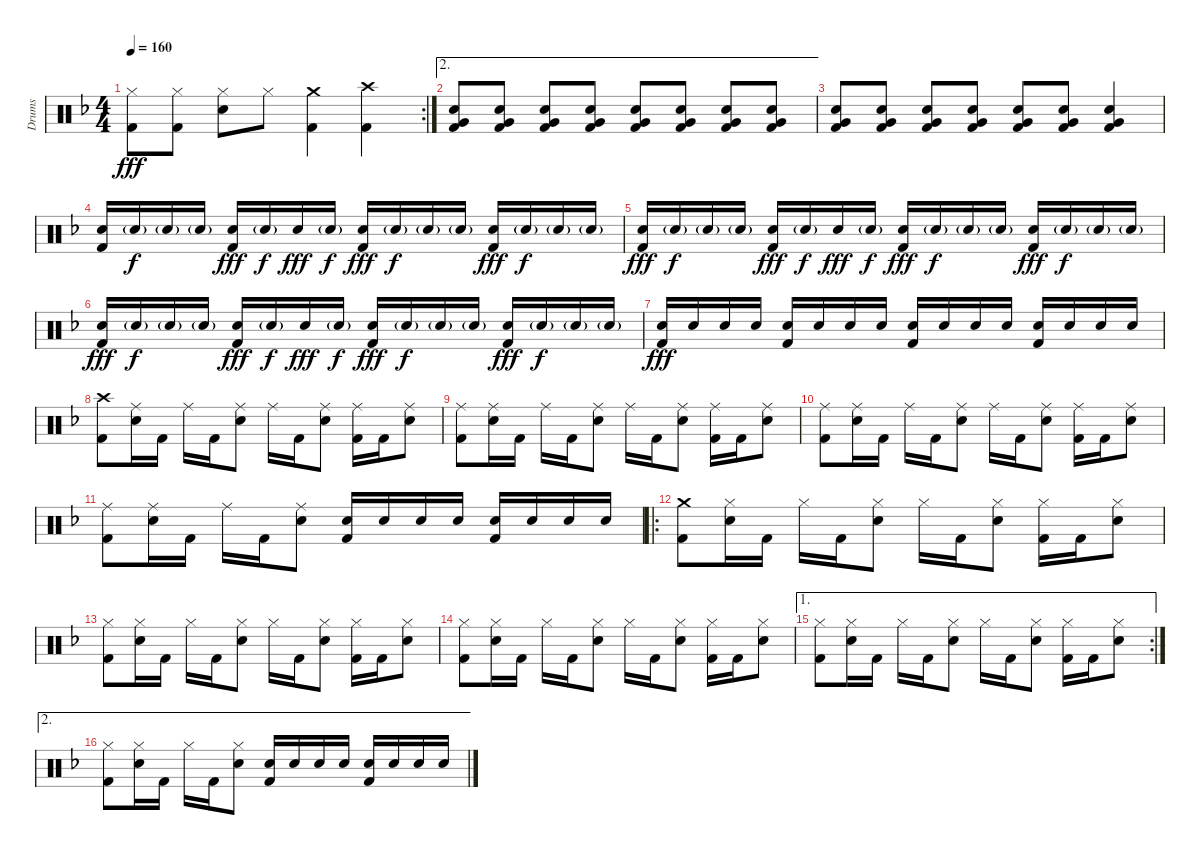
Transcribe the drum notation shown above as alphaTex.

\track ("Drums" "Drums") {instrument percussion}
\staff {score}
\articulation defaults
\rc 2
\ts (4 4)
\tempo 160
\clef neutral
\ks f
("Hi-Hat (closed)" "Kick (hit) 2").8{dy fff} ("Hi-Hat (closed)" "Kick (hit) 2").8 ("Hi-Hat (closed)" "Electric Snare (hit)").8 "Hi-Hat (closed)".8 ("Crash medium (hit)" "Kick (hit) 2").4 ("Crash high (hit)" "Kick (hit) 2").4 |
\ae 2
("Electric Snare (hit)" "Very Low Tom (hit)" "Kick (hit) 2").8 ("Electric Snare (hit)" "Very Low Tom (hit)" "Kick (hit) 2").8 ("Electric Snare (hit)" "Very Low Tom (hit)" "Kick (hit) 2").8 ("Electric Snare (hit)" "Very Low Tom (hit)" "Kick (hit) 2").8 ("Electric Snare (hit)" "Very Low Tom (hit)" "Kick (hit) 2").8 ("Electric Snare (hit)" "Very Low Tom (hit)" "Kick (hit) 2").8 ("Electric Snare (hit)" "Very Low Tom (hit)" "Kick (hit) 2").8 ("Electric Snare (hit)" "Very Low Tom (hit)" "Kick (hit) 2").8 |
("Electric Snare (hit)" "Very Low Tom (hit)" "Kick (hit) 2").8 ("Electric Snare (hit)" "Very Low Tom (hit)" "Kick (hit) 2").8 ("Electric Snare (hit)" "Very Low Tom (hit)" "Kick (hit) 2").8 ("Electric Snare (hit)" "Very Low Tom (hit)" "Kick (hit) 2").8 ("Electric Snare (hit)" "Very Low Tom (hit)" "Kick (hit) 2").8 ("Electric Snare (hit)" "Very Low Tom (hit)" "Kick (hit) 2").8 ("Electric Snare (hit)" "Very Low Tom (hit)" "Kick (hit) 2").4 |
("Electric Snare (hit)" "Kick (hit) 2").16 "Electric Snare (hit)"{g}.16{dy f} "Electric Snare (hit)"{g}.16 "Electric Snare (hit)"{g}.16 ("Electric Snare (hit)" "Kick (hit) 2").16{dy fff} "Electric Snare (hit)"{g}.16{dy f} "Electric Snare (hit)".16{dy fff} "Electric Snare (hit)"{g}.16{dy f} ("Electric Snare (hit)" "Kick (hit) 2").16{dy fff} "Electric Snare (hit)"{g}.16{dy f} "Electric Snare (hit)"{g}.16 "Electric Snare (hit)"{g}.16 ("Electric Snare (hit)" "Kick (hit) 2").16{dy fff} "Electric Snare (hit)"{g}.16{dy f} "Electric Snare (hit)"{g}.16 "Electric Snare (hit)"{g}.16 |
("Electric Snare (hit)" "Kick (hit) 2").16{dy fff} "Electric Snare (hit)"{g}.16{dy f} "Electric Snare (hit)"{g}.16 "Electric Snare (hit)"{g}.16 ("Electric Snare (hit)" "Kick (hit) 2").16{dy fff} "Electric Snare (hit)"{g}.16{dy f} "Electric Snare (hit)".16{dy fff} "Electric Snare (hit)"{g}.16{dy f} ("Electric Snare (hit)" "Kick (hit) 2").16{dy fff} "Electric Snare (hit)"{g}.16{dy f} "Electric Snare (hit)"{g}.16 "Electric Snare (hit)"{g}.16 ("Electric Snare (hit)" "Kick (hit) 2").16{dy fff} "Electric Snare (hit)"{g}.16{dy f} "Electric Snare (hit)"{g}.16 "Electric Snare (hit)"{g}.16 |
("Electric Snare (hit)" "Kick (hit) 2").16{dy fff} "Electric Snare (hit)"{g}.16{dy f} "Electric Snare (hit)"{g}.16 "Electric Snare (hit)"{g}.16 ("Electric Snare (hit)" "Kick (hit) 2").16{dy fff} "Electric Snare (hit)"{g}.16{dy f} "Electric Snare (hit)".16{dy fff} "Electric Snare (hit)"{g}.16{dy f} ("Electric Snare (hit)" "Kick (hit) 2").16{dy fff} "Electric Snare (hit)"{g}.16{dy f} "Electric Snare (hit)"{g}.16 "Electric Snare (hit)"{g}.16 ("Electric Snare (hit)" "Kick (hit) 2").16{dy fff} "Electric Snare (hit)"{g}.16{dy f} "Electric Snare (hit)"{g}.16 "Electric Snare (hit)"{g}.16 |
("Electric Snare (hit)" "Kick (hit) 2").16{dy fff} "Electric Snare (hit)".16 "Electric Snare (hit)".16 "Electric Snare (hit)".16 ("Electric Snare (hit)" "Kick (hit) 2").16 "Electric Snare (hit)".16 "Electric Snare (hit)".16 "Electric Snare (hit)".16 ("Electric Snare (hit)" "Kick (hit) 2").16 "Electric Snare (hit)".16 "Electric Snare (hit)".16 "Electric Snare (hit)".16 ("Electric Snare (hit)" "Kick (hit) 2").16 "Electric Snare (hit)".16 "Electric Snare (hit)".16 "Electric Snare (hit)".16 |
("Crash high (hit)" "Kick (hit) 2").8 ("Ride (middle)" "Electric Snare (hit)").16 "Kick (hit) 2".16 "Ride (middle)".16 "Kick (hit) 2".16 ("Ride (middle)" "Electric Snare (hit)").8 "Ride (middle)".16 "Kick (hit) 2".16 ("Ride (middle)" "Electric Snare (hit)").8 ("Ride (middle)" "Kick (hit) 2").16 "Kick (hit) 2".16 ("Ride (middle)" "Electric Snare (hit)").8 |
("Ride (middle)" "Kick (hit) 2").8 ("Ride (middle)" "Electric Snare (hit)").16 "Kick (hit) 2".16 "Ride (middle)".16 "Kick (hit) 2".16 ("Ride (middle)" "Electric Snare (hit)").8 "Ride (middle)".16 "Kick (hit) 2".16 ("Ride (middle)" "Electric Snare (hit)").8 ("Ride (middle)" "Kick (hit) 2").16 "Kick (hit) 2".16 ("Ride (middle)" "Electric Snare (hit)").8 |
("Ride (middle)" "Kick (hit) 2").8 ("Ride (middle)" "Electric Snare (hit)").16 "Kick (hit) 2".16 "Ride (middle)".16 "Kick (hit) 2".16 ("Ride (middle)" "Electric Snare (hit)").8 "Ride (middle)".16 "Kick (hit) 2".16 ("Ride (middle)" "Electric Snare (hit)").8 ("Ride (middle)" "Kick (hit) 2").16 "Kick (hit) 2".16 ("Ride (middle)" "Electric Snare (hit)").8 |
("Ride (middle)" "Kick (hit) 2").8 ("Ride (middle)" "Electric Snare (hit)").16 "Kick (hit) 2".16 "Ride (middle)".16 "Kick (hit) 2".16 ("Ride (middle)" "Electric Snare (hit)").8 ("Electric Snare (hit)" "Kick (hit) 2").16 "Electric Snare (hit)".16 "Electric Snare (hit)".16 "Electric Snare (hit)".16 ("Electric Snare (hit)" "Kick (hit) 2").16 "Electric Snare (hit)".16 "Electric Snare (hit)".16 "Electric Snare (hit)".16 |
\ro
("Crash medium (hit)" "Kick (hit) 2").8 ("Hi-Hat (closed)" "Electric Snare (hit)").16 "Kick (hit) 2".16 "Hi-Hat (closed)".16 "Kick (hit) 2".16 ("Hi-Hat (closed)" "Electric Snare (hit)").8 "Hi-Hat (closed)".16 "Kick (hit) 2".16 ("Hi-Hat (closed)" "Electric Snare (hit)").8 ("Hi-Hat (closed)" "Kick (hit) 2").16 "Kick (hit) 2".16 ("Hi-Hat (closed)" "Electric Snare (hit)").8 |
("Hi-Hat (closed)" "Kick (hit) 2").8 ("Hi-Hat (closed)" "Electric Snare (hit)").16 "Kick (hit) 2".16 "Hi-Hat (closed)".16 "Kick (hit) 2".16 ("Hi-Hat (closed)" "Electric Snare (hit)").8 "Hi-Hat (closed)".16 "Kick (hit) 2".16 ("Hi-Hat (closed)" "Electric Snare (hit)").8 ("Hi-Hat (closed)" "Kick (hit) 2").16 "Kick (hit) 2".16 ("Hi-Hat (closed)" "Electric Snare (hit)").8 |
("Hi-Hat (closed)" "Kick (hit) 2").8 ("Hi-Hat (closed)" "Electric Snare (hit)").16 "Kick (hit) 2".16 "Hi-Hat (closed)".16 "Kick (hit) 2".16 ("Hi-Hat (closed)" "Electric Snare (hit)").8 "Hi-Hat (closed)".16 "Kick (hit) 2".16 ("Hi-Hat (closed)" "Electric Snare (hit)").8 ("Hi-Hat (closed)" "Kick (hit) 2").16 "Kick (hit) 2".16 ("Hi-Hat (closed)" "Electric Snare (hit)").8 |
\ae 1
\rc 2
("Hi-Hat (closed)" "Kick (hit) 2").8 ("Hi-Hat (closed)" "Electric Snare (hit)").16 "Kick (hit) 2".16 "Hi-Hat (closed)".16 "Kick (hit) 2".16 ("Hi-Hat (closed)" "Electric Snare (hit)").8 "Hi-Hat (closed)".16 "Kick (hit) 2".16 ("Hi-Hat (closed)" "Electric Snare (hit)").8 ("Hi-Hat (closed)" "Kick (hit) 2").16 "Kick (hit) 2".16 ("Hi-Hat (closed)" "Electric Snare (hit)").8 |
\ae 2
("Hi-Hat (closed)" "Kick (hit) 2").8 ("Hi-Hat (closed)" "Electric Snare (hit)").16 "Kick (hit) 2".16 "Hi-Hat (closed)".16 "Kick (hit) 2".16 ("Hi-Hat (closed)" "Electric Snare (hit)").8 ("Electric Snare (hit)" "Kick (hit) 2").16 "Electric Snare (hit)".16 "Electric Snare (hit)".16 "Electric Snare (hit)".16 ("Electric Snare (hit)" "Kick (hit) 2").16 "Electric Snare (hit)".16 "Electric Snare (hit)".16 "Electric Snare (hit)".16
